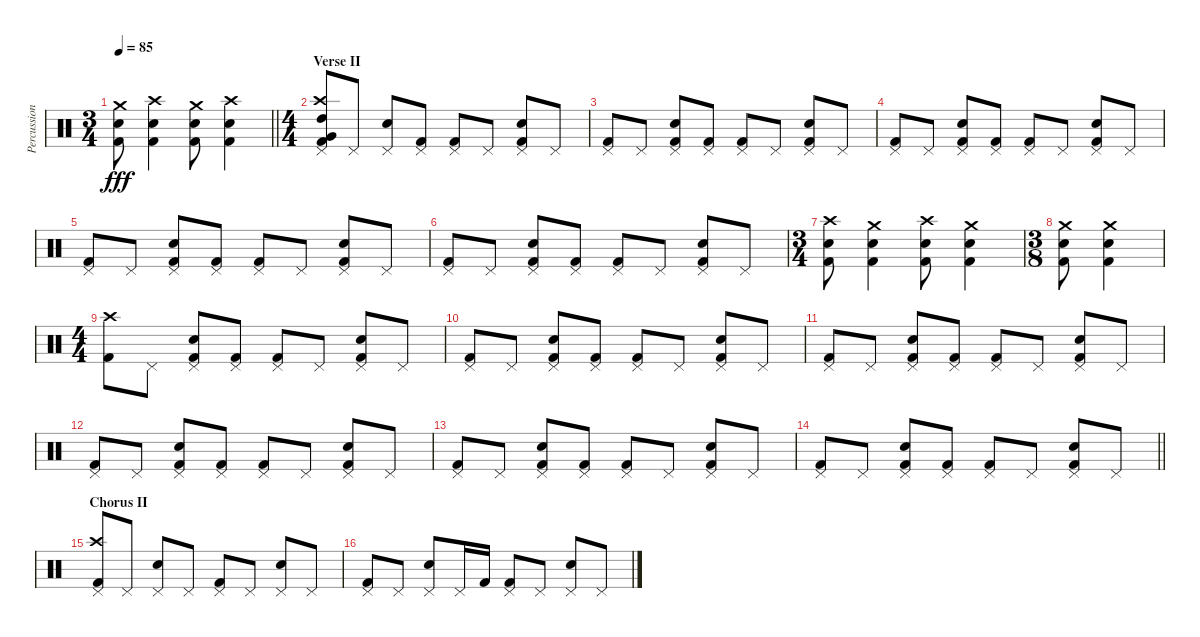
\track ("Percussion" "Percussion") {instrument percussion}
\staff {score}
\articulation defaults
\ts (3 4)
\tempo 85
\clef neutral
\barLineRight lightlight
\ks c
("Crash medium (hit)" "Snare (hit) 2" "Kick (hit) 2").8{dy fff} ("Crash high (hit)" "Snare (hit) 2" "Kick (hit) 2").4 ("Crash medium (hit)" "Snare (hit) 2" "Kick (hit) 2").8 ("Crash high (hit)" "Snare (hit) 2" "Kick (hit) 2").4 |
\ts (4 4)
\section ("" "Verse II")
("Crash high (hit)" "Very Low Tom (hit)" "High Tom (hit)" "Pedal Hi-Hat (hit)" "Kick (hit) 2").8 "Pedal Hi-Hat (hit)".8 ("Pedal Hi-Hat (hit)" "Snare (hit) 2").8 ("Pedal Hi-Hat (hit)" "Kick (hit) 2").8 ("Pedal Hi-Hat (hit)" "Kick (hit) 2").8 "Pedal Hi-Hat (hit)".8 ("Pedal Hi-Hat (hit)" "Snare (hit) 2" "Kick (hit) 2").8 "Pedal Hi-Hat (hit)".8 |
("Pedal Hi-Hat (hit)" "Kick (hit) 2").8 "Pedal Hi-Hat (hit)".8 ("Pedal Hi-Hat (hit)" "Snare (hit) 2" "Kick (hit) 2").8 ("Pedal Hi-Hat (hit)" "Kick (hit) 2").8 ("Pedal Hi-Hat (hit)" "Kick (hit) 2").8 "Pedal Hi-Hat (hit)".8 ("Pedal Hi-Hat (hit)" "Snare (hit) 2" "Kick (hit) 2").8 "Pedal Hi-Hat (hit)".8 |
("Pedal Hi-Hat (hit)" "Kick (hit) 2").8 "Pedal Hi-Hat (hit)".8 ("Pedal Hi-Hat (hit)" "Snare (hit) 2" "Kick (hit) 2").8 ("Pedal Hi-Hat (hit)" "Kick (hit) 2").8 ("Pedal Hi-Hat (hit)" "Kick (hit) 2").8 "Pedal Hi-Hat (hit)".8 ("Pedal Hi-Hat (hit)" "Snare (hit) 2" "Kick (hit) 2").8 "Pedal Hi-Hat (hit)".8 |
("Pedal Hi-Hat (hit)" "Kick (hit) 2").8 "Pedal Hi-Hat (hit)".8 ("Pedal Hi-Hat (hit)" "Snare (hit) 2" "Kick (hit) 2").8 ("Pedal Hi-Hat (hit)" "Kick (hit) 2").8 ("Pedal Hi-Hat (hit)" "Kick (hit) 2").8 "Pedal Hi-Hat (hit)".8 ("Pedal Hi-Hat (hit)" "Snare (hit) 2" "Kick (hit) 2").8 "Pedal Hi-Hat (hit)".8 |
("Pedal Hi-Hat (hit)" "Kick (hit) 2").8 "Pedal Hi-Hat (hit)".8 ("Pedal Hi-Hat (hit)" "Snare (hit) 2" "Kick (hit) 2").8 ("Pedal Hi-Hat (hit)" "Kick (hit) 2").8 ("Pedal Hi-Hat (hit)" "Kick (hit) 2").8 "Pedal Hi-Hat (hit)".8 ("Pedal Hi-Hat (hit)" "Snare (hit) 2" "Kick (hit) 2").8 "Pedal Hi-Hat (hit)".8 |
\ts (3 4)
("Kick (hit) 2" "Crash high (hit)" "Snare (hit) 2").8 ("Kick (hit) 2" "Crash medium (hit)" "Snare (hit) 2").4 ("Kick (hit) 2" "Crash high (hit)" "Snare (hit) 2").8 ("Kick (hit) 2" "Crash medium (hit)" "Snare (hit) 2").4 |
\ts (3 8)
("Kick (hit) 2" "Crash medium (hit)" "Snare (hit) 2").8 ("Kick (hit) 2" "Crash medium (hit)" "Snare (hit) 2").4 |
\ts (4 4)
("Crash high (hit)" "Kick (hit) 2").8 "Pedal Hi-Hat (hit)".8 ("Pedal Hi-Hat (hit)" "Snare (hit) 2" "Kick (hit) 2").8 ("Pedal Hi-Hat (hit)" "Kick (hit) 2").8 ("Pedal Hi-Hat (hit)" "Kick (hit) 2").8 "Pedal Hi-Hat (hit)".8 ("Pedal Hi-Hat (hit)" "Snare (hit) 2" "Kick (hit) 2").8 "Pedal Hi-Hat (hit)".8 |
("Pedal Hi-Hat (hit)" "Kick (hit) 2").8 "Pedal Hi-Hat (hit)".8 ("Pedal Hi-Hat (hit)" "Snare (hit) 2" "Kick (hit) 2").8 ("Pedal Hi-Hat (hit)" "Kick (hit) 2").8 ("Pedal Hi-Hat (hit)" "Kick (hit) 2").8 "Pedal Hi-Hat (hit)".8 ("Pedal Hi-Hat (hit)" "Snare (hit) 2" "Kick (hit) 2").8 "Pedal Hi-Hat (hit)".8 |
("Pedal Hi-Hat (hit)" "Kick (hit) 2").8 "Pedal Hi-Hat (hit)".8 ("Pedal Hi-Hat (hit)" "Snare (hit) 2" "Kick (hit) 2").8 ("Pedal Hi-Hat (hit)" "Kick (hit) 2").8 ("Pedal Hi-Hat (hit)" "Kick (hit) 2").8 "Pedal Hi-Hat (hit)".8 ("Pedal Hi-Hat (hit)" "Snare (hit) 2" "Kick (hit) 2").8 "Pedal Hi-Hat (hit)".8 |
("Pedal Hi-Hat (hit)" "Kick (hit) 2").8 "Pedal Hi-Hat (hit)".8 ("Pedal Hi-Hat (hit)" "Snare (hit) 2" "Kick (hit) 2").8 ("Pedal Hi-Hat (hit)" "Kick (hit) 2").8 ("Pedal Hi-Hat (hit)" "Kick (hit) 2").8 "Pedal Hi-Hat (hit)".8 ("Pedal Hi-Hat (hit)" "Snare (hit) 2" "Kick (hit) 2").8 "Pedal Hi-Hat (hit)".8 |
("Pedal Hi-Hat (hit)" "Kick (hit) 2").8 "Pedal Hi-Hat (hit)".8 ("Pedal Hi-Hat (hit)" "Snare (hit) 2" "Kick (hit) 2").8 ("Pedal Hi-Hat (hit)" "Kick (hit) 2").8 ("Pedal Hi-Hat (hit)" "Kick (hit) 2").8 "Pedal Hi-Hat (hit)".8 ("Pedal Hi-Hat (hit)" "Snare (hit) 2" "Kick (hit) 2").8 "Pedal Hi-Hat (hit)".8 |
\barLineRight lightlight
("Pedal Hi-Hat (hit)" "Kick (hit) 2").8 "Pedal Hi-Hat (hit)".8 ("Pedal Hi-Hat (hit)" "Snare (hit) 2" "Kick (hit) 2").8 ("Pedal Hi-Hat (hit)" "Kick (hit) 2").8 ("Pedal Hi-Hat (hit)" "Kick (hit) 2").8 "Pedal Hi-Hat (hit)".8 ("Pedal Hi-Hat (hit)" "Snare (hit) 2" "Kick (hit) 2").8 "Pedal Hi-Hat (hit)".8 |
\section ("" "Chorus II")
("Kick (hit) 2" "Crash high (hit)" "Pedal Hi-Hat (hit)").8 "Pedal Hi-Hat (hit)".8 ("Pedal Hi-Hat (hit)" "Snare (hit) 2").8 "Pedal Hi-Hat (hit)".8 ("Kick (hit) 2" "Pedal Hi-Hat (hit)").8 "Pedal Hi-Hat (hit)".8 ("Pedal Hi-Hat (hit)" "Snare (hit) 2").8 "Pedal Hi-Hat (hit)".8 |
("Kick (hit) 2" "Pedal Hi-Hat (hit)").8 "Pedal Hi-Hat (hit)".8 ("Pedal Hi-Hat (hit)" "Snare (hit) 2").8 "Pedal Hi-Hat (hit)".16 "Kick (hit) 2".16 ("Kick (hit) 2" "Pedal Hi-Hat (hit)").8 "Pedal Hi-Hat (hit)".8 ("Pedal Hi-Hat (hit)" "Snare (hit) 2").8 "Pedal Hi-Hat (hit)".8
